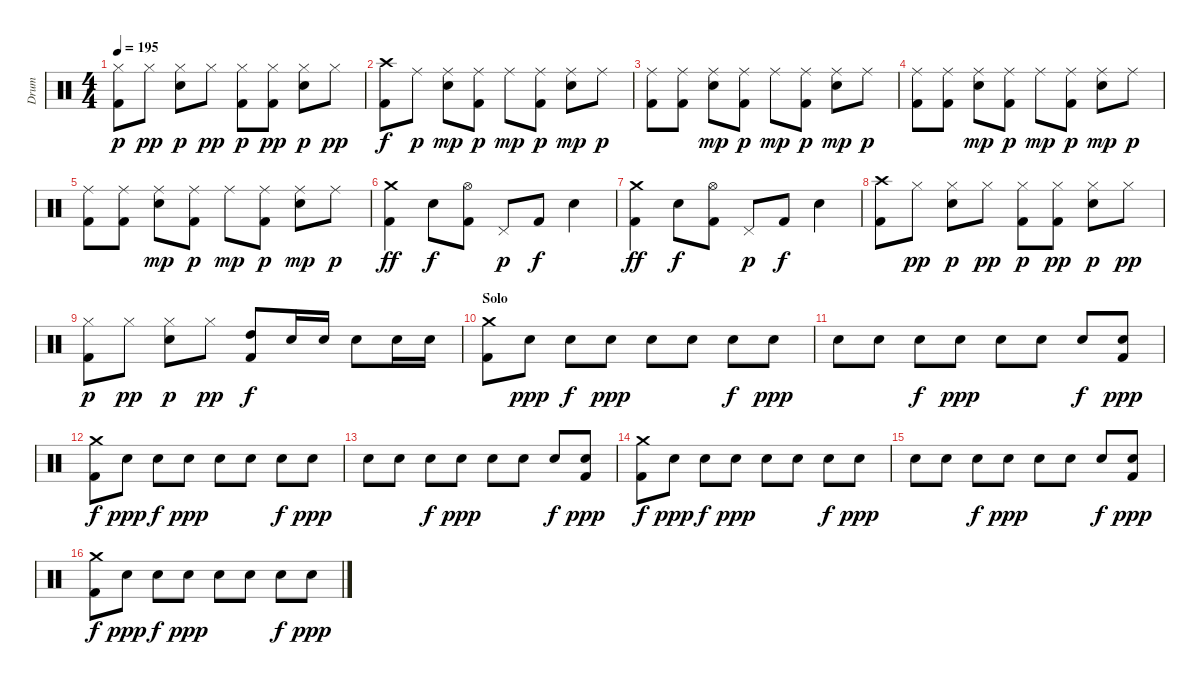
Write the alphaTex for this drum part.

\track ("Drum" "Drum") {instrument percussion}
\staff {score}
\articulation defaults
\ts (4 4)
\tempo 195
\clef neutral
\ks c
("Hi-Hat (closed)" "Kick (hit) 2").8{dy p} "Hi-Hat (closed)".8{dy pp} ("Hi-Hat (closed)" "Electric Snare (hit)").8{dy p} "Hi-Hat (closed)".8{dy pp} ("Hi-Hat (closed)" "Kick (hit) 2").8{dy p} ("Hi-Hat (closed)" "Kick (hit) 2").8{dy pp} ("Hi-Hat (closed)" "Electric Snare (hit)").8{dy p} "Hi-Hat (closed)".8{dy pp} |
("Crash high (hit)" "Kick (hit) 2").8{dy f} "Ride (middle)".8{dy p} ("Ride (middle)" "Electric Snare (hit)").8{dy mp} ("Ride (middle)" "Kick (hit) 2").8{dy p} "Ride (middle)".8{dy mp} ("Ride (middle)" "Kick (hit) 2").8{dy p} ("Ride (middle)" "Electric Snare (hit)").8{dy mp} "Ride (middle)".8{dy p} |
("Ride (middle)" "Kick (hit) 2").8 ("Ride (middle)" "Kick (hit) 2").8 ("Ride (middle)" "Electric Snare (hit)").8{dy mp} ("Ride (middle)" "Kick (hit) 2").8{dy p} "Ride (middle)".8{dy mp} ("Ride (middle)" "Kick (hit) 2").8{dy p} ("Ride (middle)" "Electric Snare (hit)").8{dy mp} "Ride (middle)".8{dy p} |
("Ride (middle)" "Kick (hit) 2").8 ("Ride (middle)" "Kick (hit) 2").8 ("Ride (middle)" "Electric Snare (hit)").8{dy mp} ("Ride (middle)" "Kick (hit) 2").8{dy p} "Ride (middle)".8{dy mp} ("Ride (middle)" "Kick (hit) 2").8{dy p} ("Ride (middle)" "Electric Snare (hit)").8{dy mp} "Ride (middle)".8{dy p} |
("Ride (middle)" "Kick (hit) 2").8 ("Ride (middle)" "Kick (hit) 2").8 ("Ride (middle)" "Electric Snare (hit)").8{dy mp} ("Ride (middle)" "Kick (hit) 2").8{dy p} "Ride (middle)".8{dy mp} ("Ride (middle)" "Kick (hit) 2").8{dy p} ("Ride (middle)" "Electric Snare (hit)").8{dy mp} "Ride (middle)".8{dy p} |
("Crash medium (hit)" "Kick (hit) 2").4{dy ff} "Electric Snare (hit)".8{dy f} ("Hi-Hat (open)" "Kick (hit) 2").8 "Pedal Hi-Hat (hit)".8{dy p} "Kick (hit) 2".8{dy f} "Electric Snare (hit)".4 |
("Crash medium (hit)" "Kick (hit) 2").4{dy ff} "Electric Snare (hit)".8{dy f} ("Hi-Hat (open)" "Kick (hit) 2").8 "Pedal Hi-Hat (hit)".8{dy p} "Kick (hit) 2".8{dy f} "Electric Snare (hit)".4 |
("Crash high (hit)" "Kick (hit) 2").8 "Hi-Hat (closed)".8{dy pp} ("Hi-Hat (closed)" "Electric Snare (hit)").8{dy p} "Hi-Hat (closed)".8{dy pp} ("Hi-Hat (closed)" "Kick (hit) 2").8{dy p} ("Hi-Hat (closed)" "Kick (hit) 2").8{dy pp} ("Hi-Hat (closed)" "Electric Snare (hit)").8{dy p} "Hi-Hat (closed)".8{dy pp} |
("Hi-Hat (closed)" "Kick (hit) 2").8{dy p} "Hi-Hat (closed)".8{dy pp} ("Hi-Hat (closed)" "Electric Snare (hit)").8{dy p} "Hi-Hat (closed)".8{dy pp} ("High Tom (hit)" "Kick (hit) 2").8{dy f} "Electric Snare (hit)".16 "Electric Snare (hit)".16 "Electric Snare (hit)".8 "Electric Snare (hit)".16 "Electric Snare (hit)".16 |
\section ("" "Solo")
("Crash medium (hit)" "Kick (hit) 2").8 "Electric Snare (hit)".8{dy ppp} "Electric Snare (hit)".8{dy f} "Electric Snare (hit)".8{dy ppp} "Electric Snare (hit)".8 "Electric Snare (hit)".8 "Electric Snare (hit)".8{dy f} "Electric Snare (hit)".8{dy ppp} |
"Electric Snare (hit)".8 "Electric Snare (hit)".8 "Electric Snare (hit)".8{dy f} "Electric Snare (hit)".8{dy ppp} "Electric Snare (hit)".8 "Electric Snare (hit)".8 "Electric Snare (hit)".8{dy f} ("Electric Snare (hit)" "Kick (hit) 2").8{dy ppp} |
("Crash medium (hit)" "Kick (hit) 2").8{dy f} "Electric Snare (hit)".8{dy ppp} "Electric Snare (hit)".8{dy f} "Electric Snare (hit)".8{dy ppp} "Electric Snare (hit)".8 "Electric Snare (hit)".8 "Electric Snare (hit)".8{dy f} "Electric Snare (hit)".8{dy ppp} |
"Electric Snare (hit)".8 "Electric Snare (hit)".8 "Electric Snare (hit)".8{dy f} "Electric Snare (hit)".8{dy ppp} "Electric Snare (hit)".8 "Electric Snare (hit)".8 "Electric Snare (hit)".8{dy f} ("Electric Snare (hit)" "Kick (hit) 2").8{dy ppp} |
("Crash medium (hit)" "Kick (hit) 2").8{dy f} "Electric Snare (hit)".8{dy ppp} "Electric Snare (hit)".8{dy f} "Electric Snare (hit)".8{dy ppp} "Electric Snare (hit)".8 "Electric Snare (hit)".8 "Electric Snare (hit)".8{dy f} "Electric Snare (hit)".8{dy ppp} |
"Electric Snare (hit)".8 "Electric Snare (hit)".8 "Electric Snare (hit)".8{dy f} "Electric Snare (hit)".8{dy ppp} "Electric Snare (hit)".8 "Electric Snare (hit)".8 "Electric Snare (hit)".8{dy f} ("Electric Snare (hit)" "Kick (hit) 2").8{dy ppp} |
("Crash medium (hit)" "Kick (hit) 2").8{dy f} "Electric Snare (hit)".8{dy ppp} "Electric Snare (hit)".8{dy f} "Electric Snare (hit)".8{dy ppp} "Electric Snare (hit)".8 "Electric Snare (hit)".8 "Electric Snare (hit)".8{dy f} "Electric Snare (hit)".8{dy ppp}
